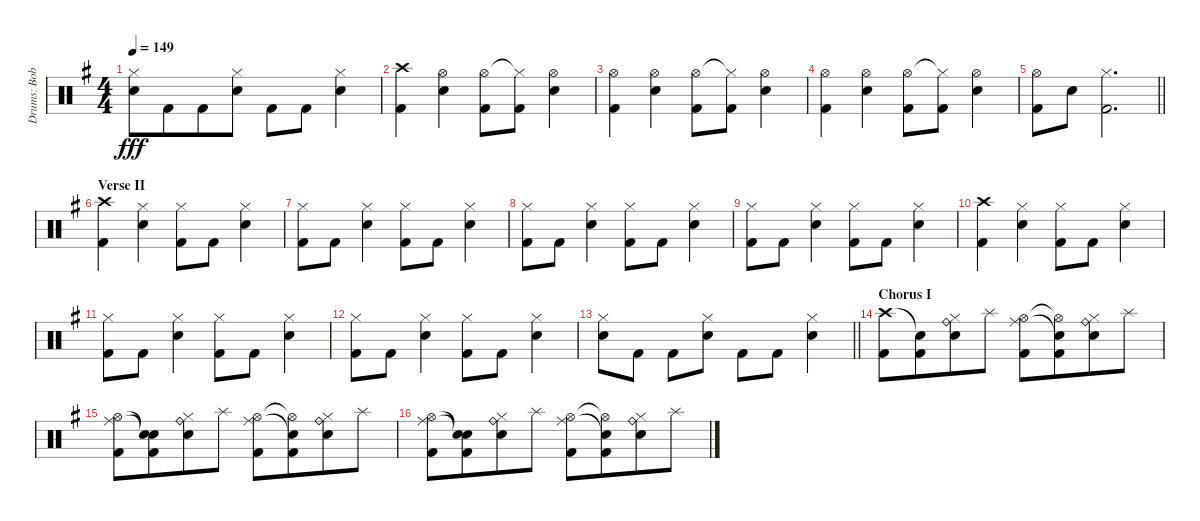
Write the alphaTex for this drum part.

\track ("Drums: Bobby" "Drums: Bob") {instrument percussion}
\staff {score}
\articulation defaults
\ts (4 4)
\tempo 149
\clef neutral
\ks g
("Hi-Hat (closed)" "Snare (hit) 2").8{dy fff} "Kick (hit) 2".8{beam merge} "Kick (hit) 2".8{beam merge} ("Hi-Hat (closed)" "Snare (hit) 2").8 "Kick (hit) 2".8 "Kick (hit) 2".8{beam merge} ("Hi-Hat (closed)" "Snare (hit) 2").4 |
("Crash high (hit)" "Kick (hit) 2").4{beam merge} ("Hi-Hat (open)" "Snare (hit) 2").4 ("Hi-Hat (open)" "Kick (hit) 2").8 ("Hi-Hat (closed)"{t} "Kick (hit) 2").8{beam merge} ("Hi-Hat (open)" "Snare (hit) 2").4 |
("Hi-Hat (open)" "Kick (hit) 2").4{beam merge} ("Hi-Hat (open)" "Snare (hit) 2").4 ("Hi-Hat (open)" "Kick (hit) 2").8 ("Hi-Hat (closed)"{t} "Kick (hit) 2").8{beam merge} ("Hi-Hat (open)" "Snare (hit) 2").4 |
("Hi-Hat (open)" "Kick (hit) 2").4{beam merge} ("Hi-Hat (open)" "Snare (hit) 2").4 ("Hi-Hat (open)" "Kick (hit) 2").8 ("Hi-Hat (closed)"{t} "Kick (hit) 2").8{beam merge} ("Hi-Hat (open)" "Snare (hit) 2").4 |
\barLineRight lightlight
("Hi-Hat (open)" "Kick (hit) 2").8{beam merge} "Snare (hit) 2".8 ("Hi-Hat (closed)" "Kick (hit) 2").2{d} |
\section ("" "Verse II")
("Crash high (hit)" "Kick (hit) 2").4{beam merge} ("Hi-Hat (closed)" "Snare (hit) 2").4 ("Hi-Hat (closed)" "Kick (hit) 2").8 "Kick (hit) 2".8{beam merge} ("Hi-Hat (closed)" "Snare (hit) 2").4 |
("Hi-Hat (closed)" "Kick (hit) 2").8 "Kick (hit) 2".8{beam merge} ("Hi-Hat (closed)" "Snare (hit) 2").4 ("Hi-Hat (closed)" "Kick (hit) 2").8 "Kick (hit) 2".8{beam merge} ("Hi-Hat (closed)" "Snare (hit) 2").4 |
("Hi-Hat (closed)" "Kick (hit) 2").8 "Kick (hit) 2".8{beam merge} ("Hi-Hat (closed)" "Snare (hit) 2").4 ("Hi-Hat (closed)" "Kick (hit) 2").8 "Kick (hit) 2".8{beam merge} ("Hi-Hat (closed)" "Snare (hit) 2").4 |
("Hi-Hat (closed)" "Kick (hit) 2").8 "Kick (hit) 2".8{beam merge} ("Hi-Hat (closed)" "Snare (hit) 2").4 ("Hi-Hat (closed)" "Kick (hit) 2").8 "Kick (hit) 2".8{beam merge} ("Hi-Hat (closed)" "Snare (hit) 2").4 |
("Crash high (hit)" "Kick (hit) 2").4{beam merge} ("Hi-Hat (closed)" "Snare (hit) 2").4 ("Hi-Hat (closed)" "Kick (hit) 2").8 "Kick (hit) 2".8{beam merge} ("Hi-Hat (closed)" "Snare (hit) 2").4 |
("Hi-Hat (closed)" "Kick (hit) 2").8 "Kick (hit) 2".8{beam merge} ("Hi-Hat (closed)" "Snare (hit) 2").4 ("Hi-Hat (closed)" "Kick (hit) 2").8 "Kick (hit) 2".8{beam merge} ("Hi-Hat (closed)" "Snare (hit) 2").4 |
("Hi-Hat (closed)" "Kick (hit) 2").8 "Kick (hit) 2".8{beam merge} ("Hi-Hat (closed)" "Snare (hit) 2").4 ("Hi-Hat (closed)" "Kick (hit) 2").8 "Kick (hit) 2".8{beam merge} ("Hi-Hat (closed)" "Snare (hit) 2").4 |
\barLineRight lightlight
("Hi-Hat (closed)" "Snare (hit) 2").8 "Kick (hit) 2".8 "Kick (hit) 2".8{beam merge} ("Hi-Hat (closed)" "Snare (hit) 2").8 "Kick (hit) 2".8 "Kick (hit) 2".8{beam merge} ("Hi-Hat (closed)" "Snare (hit) 2").4 |
\section ("" "Chorus I")
("Crash high (hit)" "Kick (hit) 2").8 ("Snare (hit)"{t} "Kick (hit) 2").8{beam merge} ("Ride (bell)" "Hi-Hat (closed)" "Snare (hit) 2").8 "Splash (hit)".8 ("Ride (middle)" "Hi-Hat (open)" "Kick (hit) 2").8 ("Snare (hit)"{t} "Hi-Hat (open)"{t} "Kick (hit) 2").8{beam merge} ("Ride (bell)" "Hi-Hat (closed)" "Snare (hit) 2").8 "Splash (hit)".8 |
("Ride (middle)" "Hi-Hat (open)" "Kick (hit) 2").8 ("Snare (hit)"{t} "Snare (hit)"{t} "Kick (hit) 2").8{beam merge} ("Ride (bell)" "Hi-Hat (closed)" "Snare (hit) 2").8 "Splash (hit)".8 ("Ride (middle)" "Hi-Hat (open)" "Kick (hit) 2").8 ("Snare (hit)"{t} "Hi-Hat (open)"{t} "Kick (hit) 2").8{beam merge} ("Ride (bell)" "Hi-Hat (closed)" "Snare (hit) 2").8 "Splash (hit)".8 |
("Ride (middle)" "Hi-Hat (open)" "Kick (hit) 2").8 ("Snare (hit)"{t} "Snare (hit)"{t} "Kick (hit) 2").8{beam merge} ("Ride (bell)" "Hi-Hat (closed)" "Snare (hit) 2").8 "Splash (hit)".8 ("Ride (middle)" "Hi-Hat (open)" "Kick (hit) 2").8 ("Snare (hit)"{t} "Hi-Hat (open)"{t} "Kick (hit) 2").8{beam merge} ("Ride (bell)" "Hi-Hat (closed)" "Snare (hit) 2").8 "Splash (hit)".8
